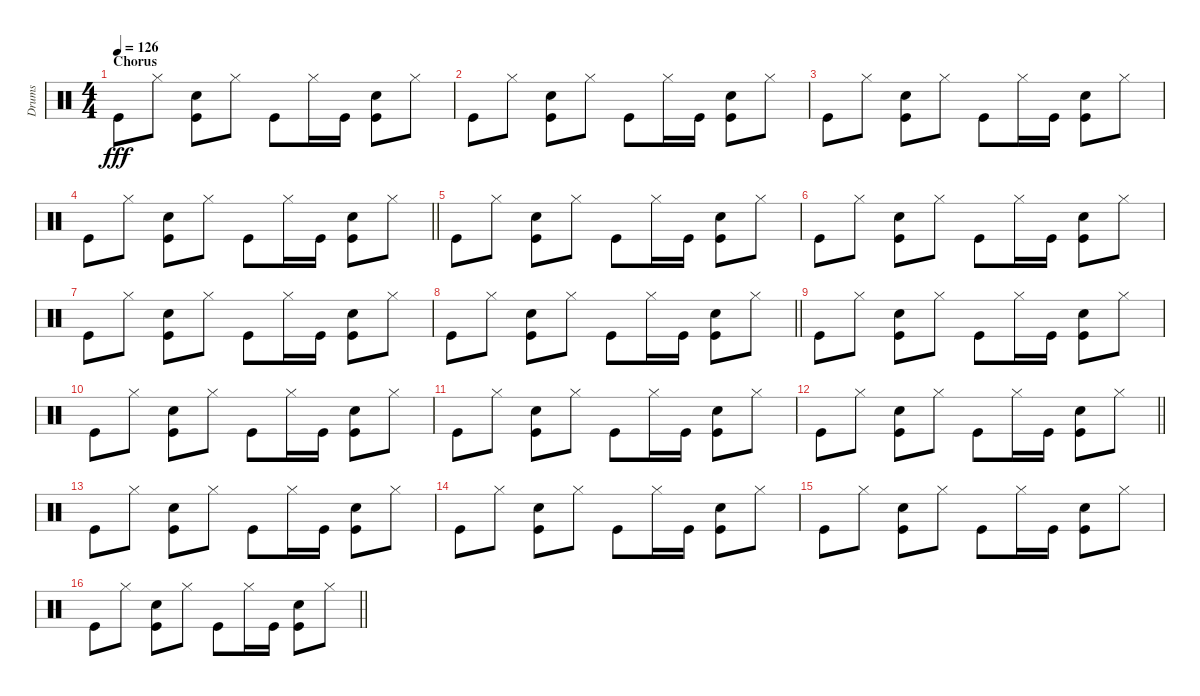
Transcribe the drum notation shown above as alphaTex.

\track ("Drums" "Drums") {instrument percussion}
\staff {score}
\articulation defaults
\ts (4 4)
\section ("" "Chorus")
\tempo 126
\clef neutral
\ks c "Kick (hit)".8{dy fff} "Hi-Hat (closed)".8
("Hand Clap (hit)" "Kick (hit)").8 "Hi-Hat (closed)".8 "Kick (hit)".8 "Hi-Hat (closed)".16 "Kick (hit)".16 ("Hand Clap (hit)" "Kick (hit)").8 "Hi-Hat (closed)".8 |
"Kick (hit)".8 "Hi-Hat (closed)".8 ("Hand Clap (hit)" "Kick (hit)").8 "Hi-Hat (closed)".8 "Kick (hit)".8 "Hi-Hat (closed)".16 "Kick (hit)".16 ("Hand Clap (hit)" "Kick (hit)").8 "Hi-Hat (closed)".8 |
"Kick (hit)".8 "Hi-Hat (closed)".8 ("Hand Clap (hit)" "Kick (hit)").8 "Hi-Hat (closed)".8 "Kick (hit)".8 "Hi-Hat (closed)".16 "Kick (hit)".16 ("Hand Clap (hit)" "Kick (hit)").8 "Hi-Hat (closed)".8 |
\barLineRight lightlight "Kick (hit)".8 "Hi-Hat (closed)".8
("Hand Clap (hit)" "Kick (hit)").8 "Hi-Hat (closed)".8 "Kick (hit)".8 "Hi-Hat (closed)".16 "Kick (hit)".16 ("Hand Clap (hit)" "Kick (hit)").8 "Hi-Hat (closed)".8 |
"Kick (hit)".8 "Hi-Hat (closed)".8 ("Hand Clap (hit)" "Kick (hit)").8 "Hi-Hat (closed)".8 "Kick (hit)".8 "Hi-Hat (closed)".16 "Kick (hit)".16 ("Hand Clap (hit)" "Kick (hit)").8 "Hi-Hat (closed)".8 |
"Kick (hit)".8 "Hi-Hat (closed)".8 ("Hand Clap (hit)" "Kick (hit)").8 "Hi-Hat (closed)".8 "Kick (hit)".8 "Hi-Hat (closed)".16 "Kick (hit)".16 ("Hand Clap (hit)" "Kick (hit)").8 "Hi-Hat (closed)".8 |
"Kick (hit)".8 "Hi-Hat (closed)".8 ("Hand Clap (hit)" "Kick (hit)").8 "Hi-Hat (closed)".8 "Kick (hit)".8 "Hi-Hat (closed)".16 "Kick (hit)".16 ("Hand Clap (hit)" "Kick (hit)").8 "Hi-Hat (closed)".8 |
\barLineRight lightlight "Kick (hit)".8 "Hi-Hat (closed)".8
("Hand Clap (hit)" "Kick (hit)").8 "Hi-Hat (closed)".8 "Kick (hit)".8 "Hi-Hat (closed)".16 "Kick (hit)".16 ("Hand Clap (hit)" "Kick (hit)").8 "Hi-Hat (closed)".8 |
"Kick (hit)".8 "Hi-Hat (closed)".8 ("Hand Clap (hit)" "Kick (hit)").8 "Hi-Hat (closed)".8 "Kick (hit)".8 "Hi-Hat (closed)".16 "Kick (hit)".16 ("Hand Clap (hit)" "Kick (hit)").8 "Hi-Hat (closed)".8 |
"Kick (hit)".8 "Hi-Hat (closed)".8 ("Hand Clap (hit)" "Kick (hit)").8 "Hi-Hat (closed)".8 "Kick (hit)".8 "Hi-Hat (closed)".16 "Kick (hit)".16 ("Hand Clap (hit)" "Kick (hit)").8 "Hi-Hat (closed)".8 |
"Kick (hit)".8 "Hi-Hat (closed)".8 ("Hand Clap (hit)" "Kick (hit)").8 "Hi-Hat (closed)".8 "Kick (hit)".8 "Hi-Hat (closed)".16 "Kick (hit)".16 ("Hand Clap (hit)" "Kick (hit)").8 "Hi-Hat (closed)".8 |
\barLineRight lightlight "Kick (hit)".8 "Hi-Hat (closed)".8
("Hand Clap (hit)" "Kick (hit)").8 "Hi-Hat (closed)".8 "Kick (hit)".8 "Hi-Hat (closed)".16 "Kick (hit)".16 ("Hand Clap (hit)" "Kick (hit)").8 "Hi-Hat (closed)".8 |
"Kick (hit)".8 "Hi-Hat (closed)".8 ("Hand Clap (hit)" "Kick (hit)").8 "Hi-Hat (closed)".8 "Kick (hit)".8 "Hi-Hat (closed)".16 "Kick (hit)".16 ("Hand Clap (hit)" "Kick (hit)").8 "Hi-Hat (closed)".8 |
"Kick (hit)".8 "Hi-Hat (closed)".8 ("Hand Clap (hit)" "Kick (hit)").8 "Hi-Hat (closed)".8 "Kick (hit)".8 "Hi-Hat (closed)".16 "Kick (hit)".16 ("Hand Clap (hit)" "Kick (hit)").8 "Hi-Hat (closed)".8 |
"Kick (hit)".8 "Hi-Hat (closed)".8 ("Hand Clap (hit)" "Kick (hit)").8 "Hi-Hat (closed)".8 "Kick (hit)".8 "Hi-Hat (closed)".16 "Kick (hit)".16 ("Hand Clap (hit)" "Kick (hit)").8 "Hi-Hat (closed)".8 |
\barLineRight lightlight "Kick (hit)".8 "Hi-Hat (closed)".8
("Hand Clap (hit)" "Kick (hit)").8 "Hi-Hat (closed)".8 "Kick (hit)".8 "Hi-Hat (closed)".16 "Kick (hit)".16 ("Hand Clap (hit)" "Kick (hit)").8 "Hi-Hat (closed)".8
